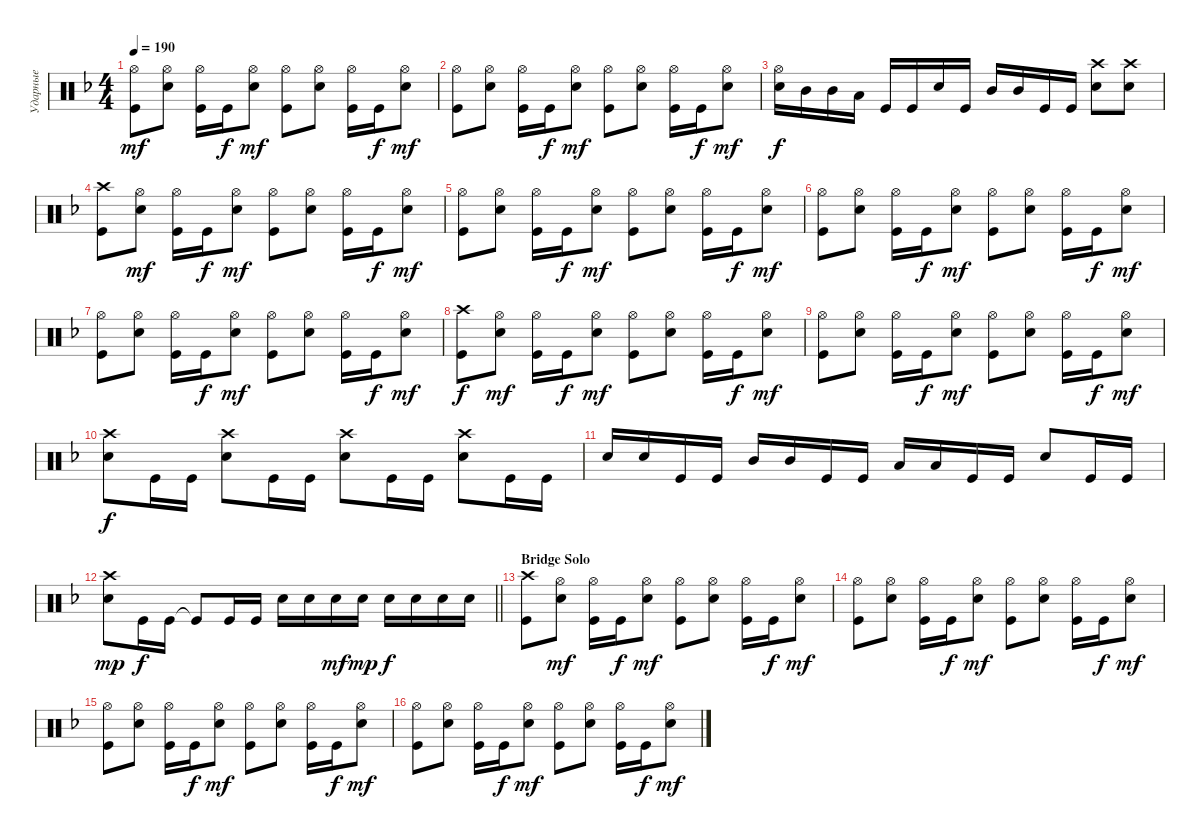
\track ("Ударные" "Ударные") {instrument percussion}
\staff {score}
\articulation defaults
\ts (4 4)
\tempo 190
\clef neutral
\ks dminor
("Kick (hit)" "Hi-Hat (open)").8{dy mf} ("Snare (hit) 2" "Hi-Hat (open)").8 ("Kick (hit)" "Hi-Hat (open)").16 "Kick (hit)".16{dy f} ("Snare (hit) 2" "Hi-Hat (open)").8{dy mf} ("Kick (hit)" "Hi-Hat (open)").8 ("Snare (hit) 2" "Hi-Hat (open)").8 ("Kick (hit)" "Hi-Hat (open)").16 "Kick (hit)".16{dy f} ("Snare (hit) 2" "Hi-Hat (open)").8{dy mf} |
("Kick (hit)" "Hi-Hat (open)").8 ("Snare (hit) 2" "Hi-Hat (open)").8 ("Kick (hit)" "Hi-Hat (open)").16 "Kick (hit)".16{dy f} ("Snare (hit) 2" "Hi-Hat (open)").8{dy mf} ("Kick (hit)" "Hi-Hat (open)").8 ("Snare (hit) 2" "Hi-Hat (open)").8 ("Kick (hit)" "Hi-Hat (open)").16 "Kick (hit)".16{dy f} ("Snare (hit) 2" "Hi-Hat (open)").8{dy mf} |
("Snare (hit) 2" "Hi-Hat (open)").16{dy f} "Mid Tom (hit)".16 "Mid Tom (hit)".16 "Low Tom (hit)".16 "Kick (hit)".16 "Kick (hit)".16 "Snare (hit) 2".16 "Kick (hit)".16 "Mid Tom (hit)".16 "Mid Tom (hit)".16 "Kick (hit)".16 "Kick (hit)".16 ("Snare (hit) 2" "Crash high (hit)").8 ("Snare (hit) 2" "Crash high (hit)").8 |
("Kick (hit)" "Crash high (hit)").8 ("Snare (hit) 2" "Hi-Hat (open)").8{dy mf} ("Kick (hit)" "Hi-Hat (open)").16 "Kick (hit)".16{dy f} ("Snare (hit) 2" "Hi-Hat (open)").8{dy mf} ("Kick (hit)" "Hi-Hat (open)").8 ("Snare (hit) 2" "Hi-Hat (open)").8 ("Kick (hit)" "Hi-Hat (open)").16 "Kick (hit)".16{dy f} ("Snare (hit) 2" "Hi-Hat (open)").8{dy mf} |
("Kick (hit)" "Hi-Hat (open)").8 ("Snare (hit) 2" "Hi-Hat (open)").8 ("Kick (hit)" "Hi-Hat (open)").16 "Kick (hit)".16{dy f} ("Snare (hit) 2" "Hi-Hat (open)").8{dy mf} ("Kick (hit)" "Hi-Hat (open)").8 ("Snare (hit) 2" "Hi-Hat (open)").8 ("Kick (hit)" "Hi-Hat (open)").16 "Kick (hit)".16{dy f} ("Snare (hit) 2" "Hi-Hat (open)").8{dy mf} |
("Kick (hit)" "Hi-Hat (open)").8 ("Snare (hit) 2" "Hi-Hat (open)").8 ("Kick (hit)" "Hi-Hat (open)").16 "Kick (hit)".16{dy f} ("Snare (hit) 2" "Hi-Hat (open)").8{dy mf} ("Kick (hit)" "Hi-Hat (open)").8 ("Snare (hit) 2" "Hi-Hat (open)").8 ("Kick (hit)" "Hi-Hat (open)").16 "Kick (hit)".16{dy f} ("Snare (hit) 2" "Hi-Hat (open)").8{dy mf} |
("Kick (hit)" "Hi-Hat (open)").8 ("Snare (hit) 2" "Hi-Hat (open)").8 ("Kick (hit)" "Hi-Hat (open)").16 "Kick (hit)".16{dy f} ("Snare (hit) 2" "Hi-Hat (open)").8{dy mf} ("Kick (hit)" "Hi-Hat (open)").8 ("Snare (hit) 2" "Hi-Hat (open)").8 ("Kick (hit)" "Hi-Hat (open)").16 "Kick (hit)".16{dy f} ("Snare (hit) 2" "Hi-Hat (open)").8{dy mf} |
("Kick (hit)" "Crash high (hit)").8{dy f} ("Snare (hit) 2" "Hi-Hat (open)").8{dy mf} ("Kick (hit)" "Hi-Hat (open)").16 "Kick (hit)".16{dy f} ("Snare (hit) 2" "Hi-Hat (open)").8{dy mf} ("Kick (hit)" "Hi-Hat (open)").8 ("Snare (hit) 2" "Hi-Hat (open)").8 ("Kick (hit)" "Hi-Hat (open)").16 "Kick (hit)".16{dy f} ("Snare (hit) 2" "Hi-Hat (open)").8{dy mf} |
("Kick (hit)" "Hi-Hat (open)").8 ("Snare (hit) 2" "Hi-Hat (open)").8 ("Kick (hit)" "Hi-Hat (open)").16 "Kick (hit)".16{dy f} ("Snare (hit) 2" "Hi-Hat (open)").8{dy mf} ("Kick (hit)" "Hi-Hat (open)").8 ("Snare (hit) 2" "Hi-Hat (open)").8 ("Kick (hit)" "Hi-Hat (open)").16 "Kick (hit)".16{dy f} ("Snare (hit) 2" "Hi-Hat (open)").8{dy mf} |
("Snare (hit) 2" "Crash high (hit)").8{dy f} "Kick (hit)".16 "Kick (hit)".16 ("Snare (hit) 2" "Crash high (hit)").8 "Kick (hit)".16 "Kick (hit)".16 ("Snare (hit) 2" "Crash high (hit)").8 "Kick (hit)".16 "Kick (hit)".16 ("Snare (hit) 2" "Crash high (hit)").8 "Kick (hit)".16 "Kick (hit)".16 |
"Snare (hit) 2".16 "Snare (hit) 2".16 "Kick (hit)".16 "Kick (hit)".16 "Mid Tom (hit)".16 "Mid Tom (hit)".16 "Kick (hit)".16 "Kick (hit)".16 "Low Tom (hit)".16 "Low Tom (hit)".16 "Kick (hit)".16 "Kick (hit)".16 "Snare (hit) 2".8 "Kick (hit)".16 "Kick (hit)".16 |
\barLineRight lightlight
("Snare (hit) 2" "Crash high (hit)").8{dy mp} "Kick (hit)".16{dy f} "Kick (hit)".16 "Kick (hit)"{t}.8 "Kick (hit)".16 "Kick (hit)".16 "Snare (hit) 2".16 "Snare (hit) 2".16 "Snare (hit) 2".16{dy mf} "Snare (hit) 2".16{dy mp} "Snare (hit) 2".16{dy f} "Snare (hit) 2".16 "Snare (hit) 2".16 "Snare (hit) 2".16 |
\section ("" "Bridge Solo")
("Kick (hit)" "Crash high (hit)").8 ("Snare (hit) 2" "Hi-Hat (open)").8{dy mf} ("Kick (hit)" "Hi-Hat (open)").16 "Kick (hit)".16{dy f} ("Snare (hit) 2" "Hi-Hat (open)").8{dy mf} ("Kick (hit)" "Hi-Hat (open)").8 ("Snare (hit) 2" "Hi-Hat (open)").8 ("Kick (hit)" "Hi-Hat (open)").16 "Kick (hit)".16{dy f} ("Snare (hit) 2" "Hi-Hat (open)").8{dy mf} |
("Kick (hit)" "Hi-Hat (open)").8 ("Snare (hit) 2" "Hi-Hat (open)").8 ("Kick (hit)" "Hi-Hat (open)").16 "Kick (hit)".16{dy f} ("Snare (hit) 2" "Hi-Hat (open)").8{dy mf} ("Kick (hit)" "Hi-Hat (open)").8 ("Snare (hit) 2" "Hi-Hat (open)").8 ("Kick (hit)" "Hi-Hat (open)").16 "Kick (hit)".16{dy f} ("Snare (hit) 2" "Hi-Hat (open)").8{dy mf} |
("Kick (hit)" "Hi-Hat (open)").8 ("Snare (hit) 2" "Hi-Hat (open)").8 ("Kick (hit)" "Hi-Hat (open)").16 "Kick (hit)".16{dy f} ("Snare (hit) 2" "Hi-Hat (open)").8{dy mf} ("Kick (hit)" "Hi-Hat (open)").8 ("Snare (hit) 2" "Hi-Hat (open)").8 ("Kick (hit)" "Hi-Hat (open)").16 "Kick (hit)".16{dy f} ("Snare (hit) 2" "Hi-Hat (open)").8{dy mf} |
("Kick (hit)" "Hi-Hat (open)").8 ("Snare (hit) 2" "Hi-Hat (open)").8 ("Kick (hit)" "Hi-Hat (open)").16 "Kick (hit)".16{dy f} ("Snare (hit) 2" "Hi-Hat (open)").8{dy mf} ("Kick (hit)" "Hi-Hat (open)").8 ("Snare (hit) 2" "Hi-Hat (open)").8 ("Kick (hit)" "Hi-Hat (open)").16 "Kick (hit)".16{dy f} ("Snare (hit) 2" "Hi-Hat (open)").8{dy mf}
